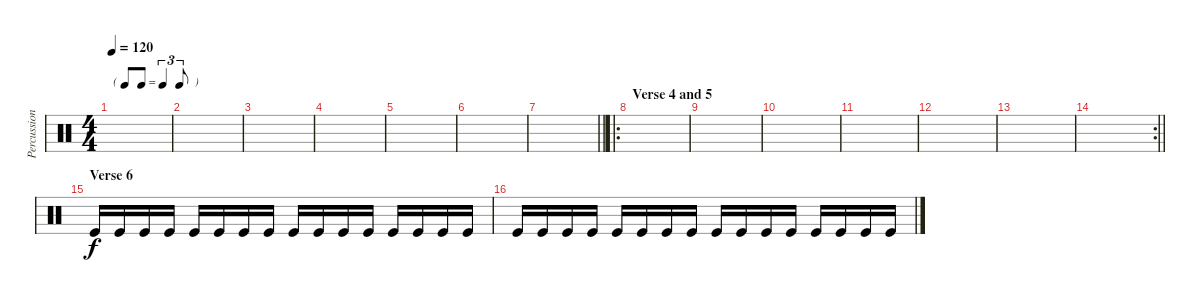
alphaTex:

\track ("Percussion" "Percussion") {instrument percussion}
\staff {score}
\articulation defaults
\ts (4 4)
\tf triplet8th
\tempo 120
\clef neutral
\ks c
|
|
|
|
|
|
\barLineRight lightlight
|
\ro
\section ("" "Verse 4 and 5")
|
|
|
|
|
|
\rc 2
\barLineRight lightlight
|
\section ("" "Verse 6")
"Kick (hit)".16 "Kick (hit)".16 "Kick (hit)".16 "Kick (hit)".16 "Kick (hit)".16 "Kick (hit)".16 "Kick (hit)".16 "Kick (hit)".16 "Kick (hit)".16 "Kick (hit)".16 "Kick (hit)".16 "Kick (hit)".16 "Kick (hit)".16 "Kick (hit)".16 "Kick (hit)".16 "Kick (hit)".16 |
"Kick (hit)".16 "Kick (hit)".16 "Kick (hit)".16 "Kick (hit)".16 "Kick (hit)".16 "Kick (hit)".16 "Kick (hit)".16 "Kick (hit)".16 "Kick (hit)".16 "Kick (hit)".16 "Kick (hit)".16 "Kick (hit)".16 "Kick (hit)".16 "Kick (hit)".16 "Kick (hit)".16 "Kick (hit)".16
